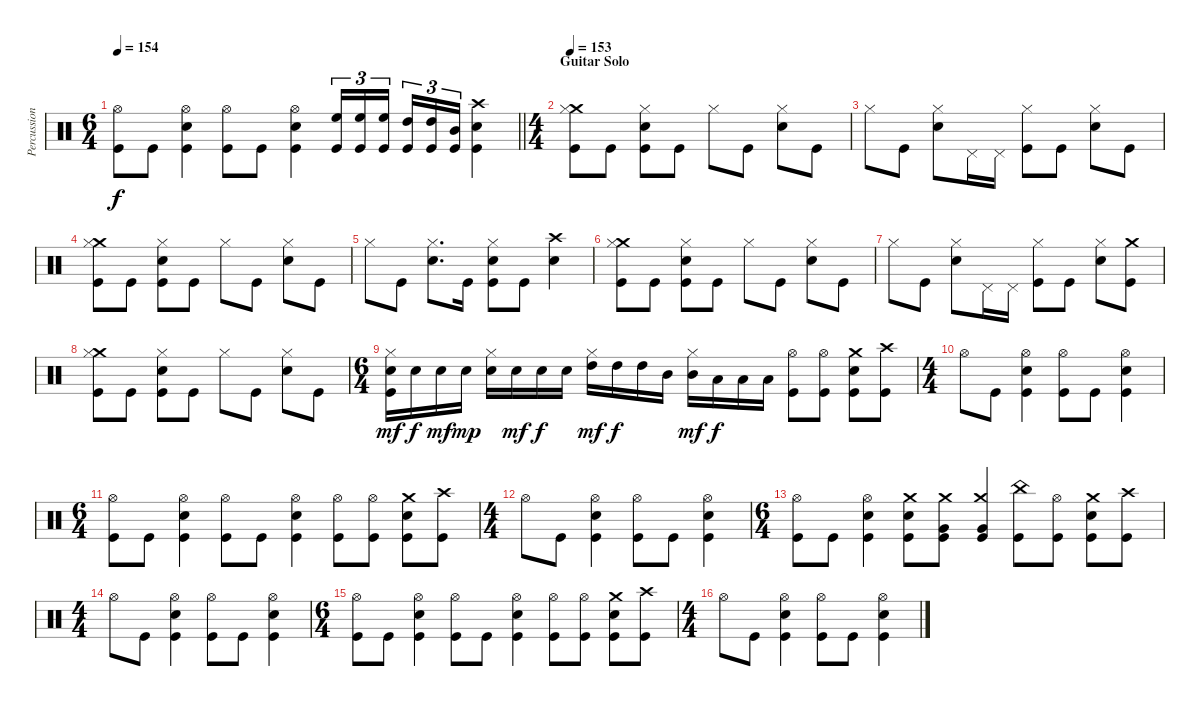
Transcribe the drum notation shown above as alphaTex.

\track ("Percussions" "Percussion") {instrument percussion}
\staff {score}
\articulation defaults
\ts (6 4)
\tempo 154
\clef neutral
\barLineRight lightlight
\ks c
("Hi-Hat (open)" "Kick (hit)").8{dy f} "Kick (hit)".8 ("Hi-Hat (open)" "Electric Snare (hit)" "Kick (hit)").4 ("Hi-Hat (open)" "Kick (hit)").8 "Kick (hit)".8 ("Hi-Hat (open)" "Electric Snare (hit)" "Kick (hit)").4 ("High Floor Tom (hit)" "Kick (hit)").16{tu (3 2)} ("High Floor Tom (hit)" "Kick (hit)").16{tu (3 2)} ("High Floor Tom (hit)" "Kick (hit)").16{tu (3 2) beam splitsecondary} ("High Tom (hit)" "Kick (hit)").16{tu (3 2)} ("High Tom (hit)" "Kick (hit)").16{tu (3 2)} ("Mid Tom (hit)" "Kick (hit)").16{tu (3 2)} ("Crash high (hit)" "Electric Snare (hit)" "Kick (hit)").4 |
\ts (4 4)
\section ("" "Guitar Solo")
\tempo 153
("Crash medium (hit)" "Hi-Hat (closed)" "Kick (hit)").8 "Kick (hit)".8 ("Hi-Hat (closed)" "Electric Snare (hit)" "Kick (hit)").8 "Kick (hit)".8 "Hi-Hat (closed)".8 "Kick (hit)".8 ("Hi-Hat (closed)" "Electric Snare (hit)").8 "Kick (hit)".8 |
"Hi-Hat (closed)".8 "Kick (hit)".8 ("Hi-Hat (closed)" "Electric Snare (hit)").8 "Pedal Hi-Hat (hit)".16 "Pedal Hi-Hat (hit)".16 ("Hi-Hat (closed)" "Kick (hit)").8 "Kick (hit)".8 ("Hi-Hat (closed)" "Electric Snare (hit)").8 "Kick (hit)".8 |
("Crash medium (hit)" "Hi-Hat (closed)" "Kick (hit)").8 "Kick (hit)".8 ("Hi-Hat (closed)" "Electric Snare (hit)" "Kick (hit)").8 "Kick (hit)".8 "Hi-Hat (closed)".8 "Kick (hit)".8 ("Hi-Hat (closed)" "Electric Snare (hit)").8 "Kick (hit)".8 |
"Hi-Hat (closed)".8 "Kick (hit)".8 ("Hi-Hat (closed)" "Electric Snare (hit)").8{d} "Kick (hit)".16 ("Hi-Hat (closed)" "Electric Snare (hit)" "Kick (hit)").8 "Kick (hit)".8 ("Crash high (hit)" "Electric Snare (hit)").4 |
("Crash medium (hit)" "Hi-Hat (closed)" "Kick (hit)").8 "Kick (hit)".8 ("Hi-Hat (closed)" "Electric Snare (hit)" "Kick (hit)").8 "Kick (hit)".8 "Hi-Hat (closed)".8 "Kick (hit)".8 ("Hi-Hat (closed)" "Electric Snare (hit)").8 "Kick (hit)".8 |
"Hi-Hat (closed)".8 "Kick (hit)".8 ("Hi-Hat (closed)" "Electric Snare (hit)").8 "Pedal Hi-Hat (hit)".16 "Pedal Hi-Hat (hit)".16 ("Hi-Hat (closed)" "Kick (hit)").8 "Kick (hit)".8 ("Hi-Hat (closed)" "Electric Snare (hit)").8 ("Crash medium (hit)" "Kick (hit)").8 |
("Crash medium (hit)" "Hi-Hat (closed)" "Kick (hit)").8 "Kick (hit)".8 ("Hi-Hat (closed)" "Electric Snare (hit)" "Kick (hit)").8 "Kick (hit)".8 "Hi-Hat (closed)".8 "Kick (hit)".8 ("Hi-Hat (closed)" "Electric Snare (hit)").8 "Kick (hit)".8 |
\ts (6 4)
("Hi-Hat (closed)" "Electric Snare (hit)" "Kick (hit)").16{dy mf} "Electric Snare (hit)".16{dy f} "Electric Snare (hit)".16{dy mf} "Electric Snare (hit)".16{dy mp} ("Hi-Hat (closed)" "Electric Snare (hit)").16 "Electric Snare (hit)".16{dy mf} "Electric Snare (hit)".16{dy f} "Electric Snare (hit)".16 ("Hi-Hat (closed)" "High Tom (hit)").16{dy mf} "High Tom (hit)".16{dy f} "High Tom (hit)".16 "Mid Tom (hit)".16 ("Hi-Hat (closed)" "Mid Tom (hit)").16{dy mf} "Low Tom (hit)".16{dy f} "Low Tom (hit)".16 "Low Tom (hit)".16 ("Hi-Hat (open)" "Kick (hit)").8 ("Hi-Hat (open)" "Kick (hit)").8 ("Crash medium (hit)" "Electric Snare (hit)" "Kick (hit)").8 ("Crash high (hit)" "Kick (hit)").8 |
\ts (4 4)
"Hi-Hat (open)".8 "Kick (hit)".8 ("Hi-Hat (open)" "Electric Snare (hit)" "Kick (hit)").4 ("Hi-Hat (open)" "Kick (hit)").8 "Kick (hit)".8 ("Hi-Hat (open)" "Electric Snare (hit)" "Kick (hit)").4 |
\ts (6 4)
("Hi-Hat (open)" "Kick (hit)").8 "Kick (hit)".8 ("Hi-Hat (open)" "Electric Snare (hit)" "Kick (hit)").4 ("Hi-Hat (open)" "Kick (hit)").8 "Kick (hit)".8 ("Hi-Hat (open)" "Electric Snare (hit)" "Kick (hit)").4 ("Hi-Hat (open)" "Kick (hit)").8 ("Hi-Hat (open)" "Kick (hit)").8 ("Crash medium (hit)" "Electric Snare (hit)" "Kick (hit)").8 ("Crash high (hit)" "Kick (hit)").8 |
\ts (4 4)
"Hi-Hat (open)".8 "Kick (hit)".8 ("Hi-Hat (open)" "Electric Snare (hit)" "Kick (hit)").4 ("Hi-Hat (open)" "Kick (hit)").8 "Kick (hit)".8 ("Hi-Hat (open)" "Electric Snare (hit)" "Kick (hit)").4 |
\ts (6 4)
("Hi-Hat (open)" "Kick (hit)").8 "Kick (hit)".8 ("Hi-Hat (open)" "Electric Snare (hit)" "Kick (hit)").4 ("Crash medium (hit)" "Electric Snare (hit)" "Kick (hit)").8 ("Crash medium (hit)" "Very Low Tom (hit)" "Kick (hit)").8 ("Crash medium (hit)" "Very Low Tom (hit)" "Kick (hit)").4 ("China (hit)" "Kick (hit)").8 ("Hi-Hat (open)" "Kick (hit)").8 ("Crash medium (hit)" "Electric Snare (hit)" "Kick (hit)").8 ("Crash high (hit)" "Kick (hit)").8 |
\ts (4 4)
"Hi-Hat (open)".8 "Kick (hit)".8 ("Hi-Hat (open)" "Electric Snare (hit)" "Kick (hit)").4 ("Hi-Hat (open)" "Kick (hit)").8 "Kick (hit)".8 ("Hi-Hat (open)" "Electric Snare (hit)" "Kick (hit)").4 |
\ts (6 4)
("Hi-Hat (open)" "Kick (hit)").8 "Kick (hit)".8 ("Hi-Hat (open)" "Electric Snare (hit)" "Kick (hit)").4 ("Hi-Hat (open)" "Kick (hit)").8 "Kick (hit)".8 ("Hi-Hat (open)" "Electric Snare (hit)" "Kick (hit)").4 ("Hi-Hat (open)" "Kick (hit)").8 ("Hi-Hat (open)" "Kick (hit)").8 ("Crash medium (hit)" "Electric Snare (hit)" "Kick (hit)").8 ("Crash high (hit)" "Kick (hit)").8 |
\ts (4 4)
"Hi-Hat (open)".8 "Kick (hit)".8 ("Hi-Hat (open)" "Electric Snare (hit)" "Kick (hit)").4 ("Hi-Hat (open)" "Kick (hit)").8 "Kick (hit)".8 ("Hi-Hat (open)" "Electric Snare (hit)" "Kick (hit)").4
